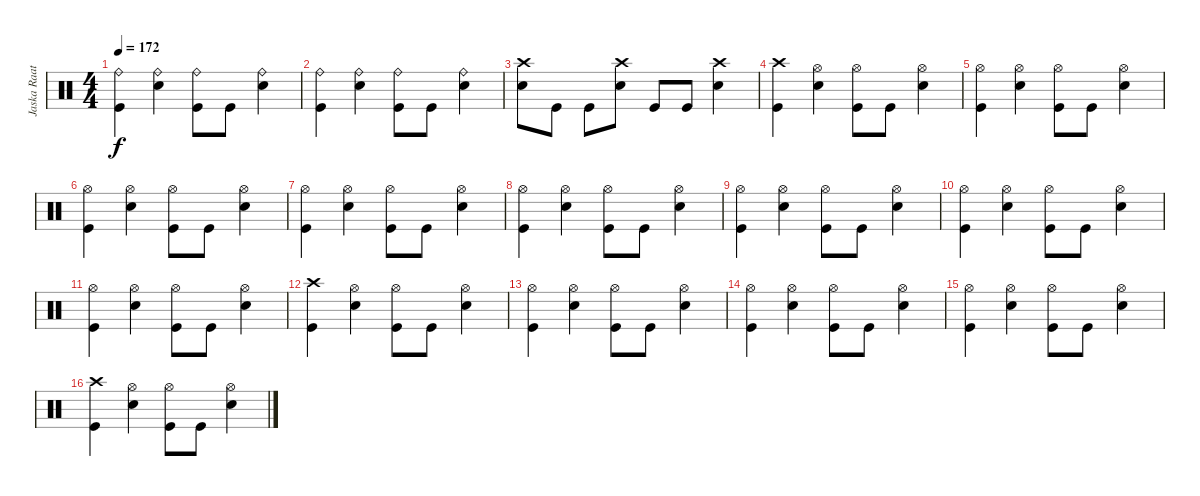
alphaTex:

\track ("Jaska Raatikainen" "Jaska Raat") {instrument percussion}
\staff {score}
\articulation defaults
\ts (4 4)
\tempo 172
\clef neutral
\ks c
("Ride (bell)" "Kick (hit)").4{dy f} ("Ride (bell)" "Snare (hit) 2").4 ("Ride (bell)" "Kick (hit)").8 "Kick (hit)".8 ("Ride (bell)" "Snare (hit) 2").4 |
("Ride (bell)" "Kick (hit)").4 ("Ride (bell)" "Snare (hit) 2").4 ("Ride (bell)" "Kick (hit)").8 "Kick (hit)".8 ("Ride (bell)" "Snare (hit) 2").4 |
("Crash high (hit)" "Snare (hit) 2").8 "Kick (hit)".8 "Kick (hit)".8 ("Crash high (hit)" "Snare (hit) 2").8 "Kick (hit)".8 "Kick (hit)".8 ("Crash high (hit)" "Snare (hit) 2").4 |
("Crash high (hit)" "Kick (hit)").4 ("Hi-Hat (open)" "Snare (hit) 2").4 ("Hi-Hat (open)" "Kick (hit)").8 "Kick (hit)".8 ("Hi-Hat (open)" "Snare (hit) 2").4 |
("Hi-Hat (open)" "Kick (hit)").4 ("Hi-Hat (open)" "Snare (hit) 2").4 ("Hi-Hat (open)" "Kick (hit)").8 "Kick (hit)".8 ("Hi-Hat (open)" "Snare (hit) 2").4 |
("Hi-Hat (open)" "Kick (hit)").4 ("Hi-Hat (open)" "Snare (hit) 2").4 ("Hi-Hat (open)" "Kick (hit)").8 "Kick (hit)".8 ("Hi-Hat (open)" "Snare (hit) 2").4 |
("Hi-Hat (open)" "Kick (hit)").4 ("Hi-Hat (open)" "Snare (hit) 2").4 ("Hi-Hat (open)" "Kick (hit)").8 "Kick (hit)".8 ("Hi-Hat (open)" "Snare (hit) 2").4 |
("Hi-Hat (open)" "Kick (hit)").4 ("Hi-Hat (open)" "Snare (hit) 2").4 ("Hi-Hat (open)" "Kick (hit)").8 "Kick (hit)".8 ("Hi-Hat (open)" "Snare (hit) 2").4 |
("Hi-Hat (open)" "Kick (hit)").4 ("Hi-Hat (open)" "Snare (hit) 2").4 ("Hi-Hat (open)" "Kick (hit)").8 "Kick (hit)".8 ("Hi-Hat (open)" "Snare (hit) 2").4 |
("Hi-Hat (open)" "Kick (hit)").4 ("Hi-Hat (open)" "Snare (hit) 2").4 ("Hi-Hat (open)" "Kick (hit)").8 "Kick (hit)".8 ("Hi-Hat (open)" "Snare (hit) 2").4 |
("Hi-Hat (open)" "Kick (hit)").4 ("Hi-Hat (open)" "Snare (hit) 2").4 ("Hi-Hat (open)" "Kick (hit)").8 "Kick (hit)".8 ("Hi-Hat (open)" "Snare (hit) 2").4 |
("Crash high (hit)" "Kick (hit)").4 ("Hi-Hat (open)" "Snare (hit) 2").4 ("Hi-Hat (open)" "Kick (hit)").8 "Kick (hit)".8 ("Hi-Hat (open)" "Snare (hit) 2").4 |
("Hi-Hat (open)" "Kick (hit)").4 ("Hi-Hat (open)" "Snare (hit) 2").4 ("Hi-Hat (open)" "Kick (hit)").8 "Kick (hit)".8 ("Hi-Hat (open)" "Snare (hit) 2").4 |
("Hi-Hat (open)" "Kick (hit)").4 ("Hi-Hat (open)" "Snare (hit) 2").4 ("Hi-Hat (open)" "Kick (hit)").8 "Kick (hit)".8 ("Hi-Hat (open)" "Snare (hit) 2").4 |
("Hi-Hat (open)" "Kick (hit)").4 ("Hi-Hat (open)" "Snare (hit) 2").4 ("Hi-Hat (open)" "Kick (hit)").8 "Kick (hit)".8 ("Hi-Hat (open)" "Snare (hit) 2").4 |
("Crash high (hit)" "Kick (hit)").4 ("Hi-Hat (open)" "Snare (hit) 2").4 ("Hi-Hat (open)" "Kick (hit)").8 "Kick (hit)".8 ("Hi-Hat (open)" "Snare (hit) 2").4
